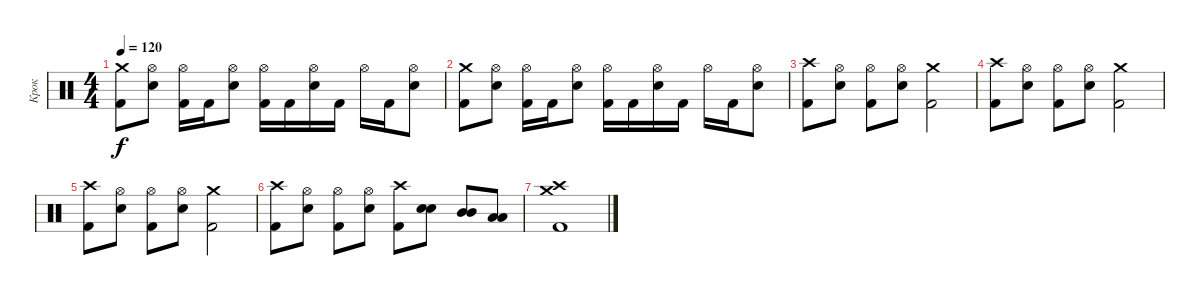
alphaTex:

\track ("Крок" "Крок") {instrument percussion}
\staff {score}
\articulation defaults
\ts (4 4)
\tempo 120
\clef neutral
\ks c
("Crash medium (hit)" "Kick (hit) 2").8{dy f} ("Hi-Hat (open)" "Electric Snare (hit)").8 ("Hi-Hat (open)" "Kick (hit) 2").16 "Kick (hit) 2".16 ("Hi-Hat (open)" "Electric Snare (hit)").8 ("Hi-Hat (open)" "Kick (hit) 2").16 "Kick (hit) 2".16 ("Hi-Hat (open)" "Electric Snare (hit)").16 "Kick (hit) 2".16 "Hi-Hat (open)".16 "Kick (hit) 2".16 ("Hi-Hat (open)" "Electric Snare (hit)").8 |
("Crash medium (hit)" "Kick (hit) 2").8 ("Hi-Hat (open)" "Electric Snare (hit)").8 ("Hi-Hat (open)" "Kick (hit) 2").16 "Kick (hit) 2".16 ("Hi-Hat (open)" "Electric Snare (hit)").8 ("Hi-Hat (open)" "Kick (hit) 2").16 "Kick (hit) 2".16 ("Hi-Hat (open)" "Electric Snare (hit)").16 "Kick (hit) 2".16 "Hi-Hat (open)".16 "Kick (hit) 2".16 ("Hi-Hat (open)" "Electric Snare (hit)").8 |
("Crash high (hit)" "Kick (hit) 2").8 ("Hi-Hat (open)" "Electric Snare (hit)").8 ("Hi-Hat (open)" "Kick (hit) 2").8 ("Hi-Hat (open)" "Electric Snare (hit)").8 ("Crash medium (hit)" "Kick (hit) 2").2 |
("Crash high (hit)" "Kick (hit) 2").8 ("Hi-Hat (open)" "Electric Snare (hit)").8 ("Hi-Hat (open)" "Kick (hit) 2").8 ("Hi-Hat (open)" "Electric Snare (hit)").8 ("Crash medium (hit)" "Kick (hit) 2").2 |
("Crash high (hit)" "Kick (hit) 2").8 ("Hi-Hat (open)" "Electric Snare (hit)").8 ("Hi-Hat (open)" "Kick (hit) 2").8 ("Hi-Hat (open)" "Electric Snare (hit)").8 ("Crash medium (hit)" "Kick (hit) 2").2 |
("Crash high (hit)" "Kick (hit) 2").8 ("Hi-Hat (open)" "Electric Snare (hit)").8 ("Hi-Hat (open)" "Kick (hit) 2").8 ("Hi-Hat (open)" "Electric Snare (hit)").8 ("Crash high (hit)" "Kick (hit) 2").8 ("Electric Snare (hit)" "Electric Snare (hit)").8 ("Mid Tom (hit)" "Mid Tom (hit)").8 ("Low Tom (hit)" "Low Tom (hit)").8 |
("Crash medium (hit)" "Crash high (hit)" "Kick (hit) 2").1
